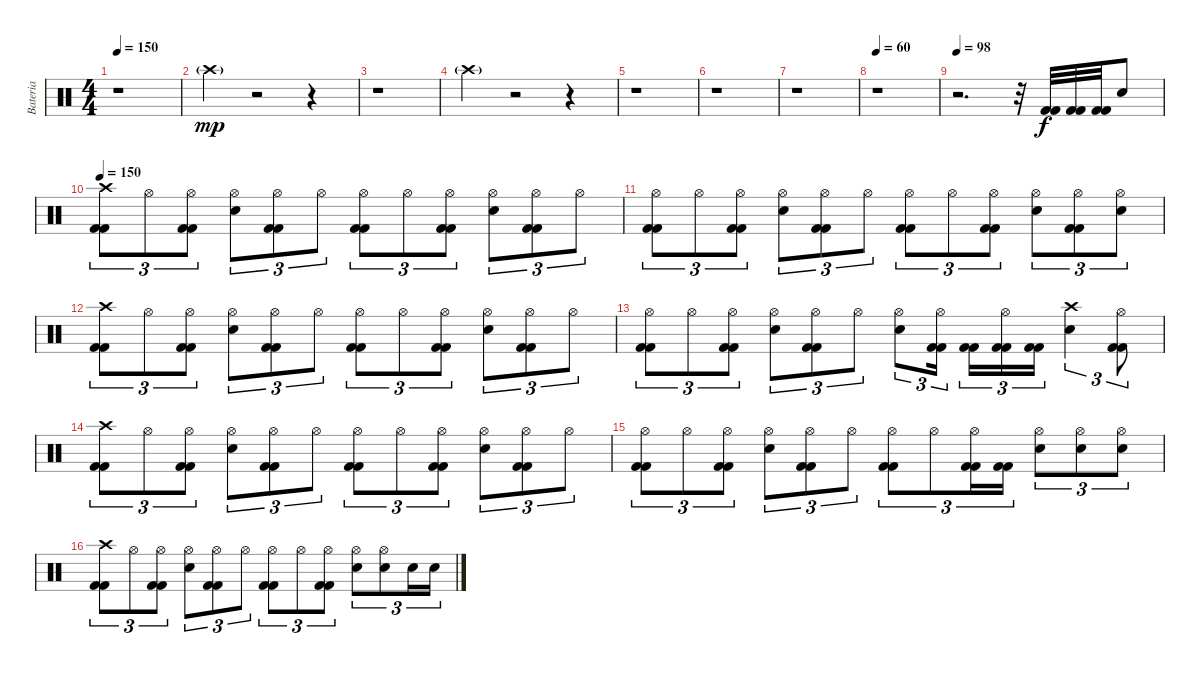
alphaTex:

\track ("Bateria" "Bateria") {instrument percussion}
\staff {score}
\articulation defaults
\ts (4 4)
\tempo 150
\clef neutral
\ks c
r.1{dy mp} |
"Crash high (hit)"{g}.4 r.2 r.4 |
r.1 |
"Crash high (hit)"{g}.4 r.2 r.4 |
r.1 |
r.1 |
r.1 |
\tempo 60
r.1 |
\tempo 98
r.2{d} r.32 ("Kick (hit) 2" "Kick (hit) 2").32{dy f} ("Kick (hit) 2" "Kick (hit) 2").32 ("Kick (hit) 2" "Kick (hit) 2").32 "Snare (hit) 2".8 |
\tempo 150
("Kick (hit) 2" "Kick (hit) 2" "Crash high (hit)").8{tu (3 2)} "Hi-Hat (open)".8{tu (3 2)} ("Kick (hit) 2" "Kick (hit) 2" "Hi-Hat (open)").8{tu (3 2)} ("Snare (hit) 2" "Hi-Hat (open)").8{tu (3 2)} ("Kick (hit) 2" "Kick (hit) 2" "Hi-Hat (open)").8{tu (3 2)} "Hi-Hat (open)".8{tu (3 2)} ("Kick (hit) 2" "Kick (hit) 2" "Hi-Hat (open)").8{tu (3 2)} "Hi-Hat (open)".8{tu (3 2)} ("Kick (hit) 2" "Kick (hit) 2" "Hi-Hat (open)").8{tu (3 2)} ("Snare (hit) 2" "Hi-Hat (open)").8{tu (3 2)} ("Kick (hit) 2" "Kick (hit) 2" "Hi-Hat (open)").8{tu (3 2)} "Hi-Hat (open)".8{tu (3 2)} |
("Kick (hit) 2" "Kick (hit) 2" "Hi-Hat (open)").8{tu (3 2)} "Hi-Hat (open)".8{tu (3 2)} ("Kick (hit) 2" "Kick (hit) 2" "Hi-Hat (open)").8{tu (3 2)} ("Snare (hit) 2" "Hi-Hat (open)").8{tu (3 2)} ("Kick (hit) 2" "Kick (hit) 2" "Hi-Hat (open)").8{tu (3 2)} "Hi-Hat (open)".8{tu (3 2)} ("Kick (hit) 2" "Kick (hit) 2" "Hi-Hat (open)").8{tu (3 2)} "Hi-Hat (open)".8{tu (3 2)} ("Kick (hit) 2" "Kick (hit) 2" "Hi-Hat (open)").8{tu (3 2)} ("Snare (hit) 2" "Hi-Hat (open)").8{tu (3 2)} ("Kick (hit) 2" "Kick (hit) 2" "Hi-Hat (open)").8{tu (3 2)} ("Snare (hit) 2" "Hi-Hat (open)").8{tu (3 2)} |
("Kick (hit) 2" "Kick (hit) 2" "Crash high (hit)").8{tu (3 2)} "Hi-Hat (open)".8{tu (3 2)} ("Kick (hit) 2" "Kick (hit) 2" "Hi-Hat (open)").8{tu (3 2)} ("Snare (hit) 2" "Hi-Hat (open)").8{tu (3 2)} ("Kick (hit) 2" "Kick (hit) 2" "Hi-Hat (open)").8{tu (3 2)} "Hi-Hat (open)".8{tu (3 2)} ("Kick (hit) 2" "Kick (hit) 2" "Hi-Hat (open)").8{tu (3 2)} "Hi-Hat (open)".8{tu (3 2)} ("Kick (hit) 2" "Kick (hit) 2" "Hi-Hat (open)").8{tu (3 2)} ("Snare (hit) 2" "Hi-Hat (open)").8{tu (3 2)} ("Kick (hit) 2" "Kick (hit) 2" "Hi-Hat (open)").8{tu (3 2)} "Hi-Hat (open)".8{tu (3 2)} |
("Kick (hit) 2" "Kick (hit) 2" "Hi-Hat (open)").8{tu (3 2)} "Hi-Hat (open)".8{tu (3 2)} ("Kick (hit) 2" "Kick (hit) 2" "Hi-Hat (open)").8{tu (3 2)} ("Snare (hit) 2" "Hi-Hat (open)").8{tu (3 2)} ("Kick (hit) 2" "Kick (hit) 2" "Hi-Hat (open)").8{tu (3 2)} "Hi-Hat (open)".8{tu (3 2)} ("Snare (hit) 2" "Hi-Hat (open)").8{tu (3 2)} ("Kick (hit) 2" "Kick (hit) 2" "Hi-Hat (open)").16{tu (3 2)} ("Kick (hit) 2" "Kick (hit) 2").16{tu (3 2)} ("Kick (hit) 2" "Kick (hit) 2" "Hi-Hat (open)").16{tu (3 2)} ("Kick (hit) 2" "Kick (hit) 2").16{tu (3 2)} ("Snare (hit) 2" "Crash high (hit)").4{tu (3 2)} ("Kick (hit) 2" "Kick (hit) 2" "Hi-Hat (open)").8{tu (3 2)} |
("Kick (hit) 2" "Kick (hit) 2" "Crash high (hit)").8{tu (3 2)} "Hi-Hat (open)".8{tu (3 2)} ("Kick (hit) 2" "Kick (hit) 2" "Hi-Hat (open)").8{tu (3 2)} ("Snare (hit) 2" "Hi-Hat (open)").8{tu (3 2)} ("Kick (hit) 2" "Kick (hit) 2" "Hi-Hat (open)").8{tu (3 2)} "Hi-Hat (open)".8{tu (3 2)} ("Kick (hit) 2" "Kick (hit) 2" "Hi-Hat (open)").8{tu (3 2)} "Hi-Hat (open)".8{tu (3 2)} ("Kick (hit) 2" "Kick (hit) 2" "Hi-Hat (open)").8{tu (3 2)} ("Snare (hit) 2" "Hi-Hat (open)").8{tu (3 2)} ("Kick (hit) 2" "Kick (hit) 2" "Hi-Hat (open)").8{tu (3 2)} "Hi-Hat (open)".8{tu (3 2)} |
("Kick (hit) 2" "Kick (hit) 2" "Hi-Hat (open)").8{tu (3 2)} "Hi-Hat (open)".8{tu (3 2)} ("Kick (hit) 2" "Kick (hit) 2" "Hi-Hat (open)").8{tu (3 2)} ("Snare (hit) 2" "Hi-Hat (open)").8{tu (3 2)} ("Kick (hit) 2" "Kick (hit) 2" "Hi-Hat (open)").8{tu (3 2)} "Hi-Hat (open)".8{tu (3 2)} ("Kick (hit) 2" "Kick (hit) 2" "Hi-Hat (open)").8{tu (3 2)} "Hi-Hat (open)".8{tu (3 2)} ("Kick (hit) 2" "Kick (hit) 2" "Hi-Hat (open)").16{tu (3 2)} ("Kick (hit) 2" "Kick (hit) 2").16{tu (3 2)} ("Snare (hit) 2" "Hi-Hat (open)").8{tu (3 2)} ("Snare (hit) 2" "Hi-Hat (open)").8{tu (3 2)} ("Snare (hit) 2" "Hi-Hat (open)").8{tu (3 2)} |
("Kick (hit) 2" "Kick (hit) 2" "Crash high (hit)").8{tu (3 2)} "Hi-Hat (open)".8{tu (3 2)} ("Kick (hit) 2" "Kick (hit) 2" "Hi-Hat (open)").8{tu (3 2)} ("Snare (hit) 2" "Hi-Hat (open)").8{tu (3 2)} ("Kick (hit) 2" "Kick (hit) 2" "Hi-Hat (open)").8{tu (3 2)} "Hi-Hat (open)".8{tu (3 2)} ("Kick (hit) 2" "Kick (hit) 2" "Hi-Hat (open)").8{tu (3 2)} "Hi-Hat (open)".8{tu (3 2)} ("Kick (hit) 2" "Kick (hit) 2" "Hi-Hat (open)").8{tu (3 2)} ("Snare (hit) 2" "Hi-Hat (open)").8{tu (3 2)} ("Snare (hit) 2" "Hi-Hat (open)").8{tu (3 2)} "Snare (hit) 2".16{tu (3 2)} "Snare (hit) 2".16{tu (3 2)}
